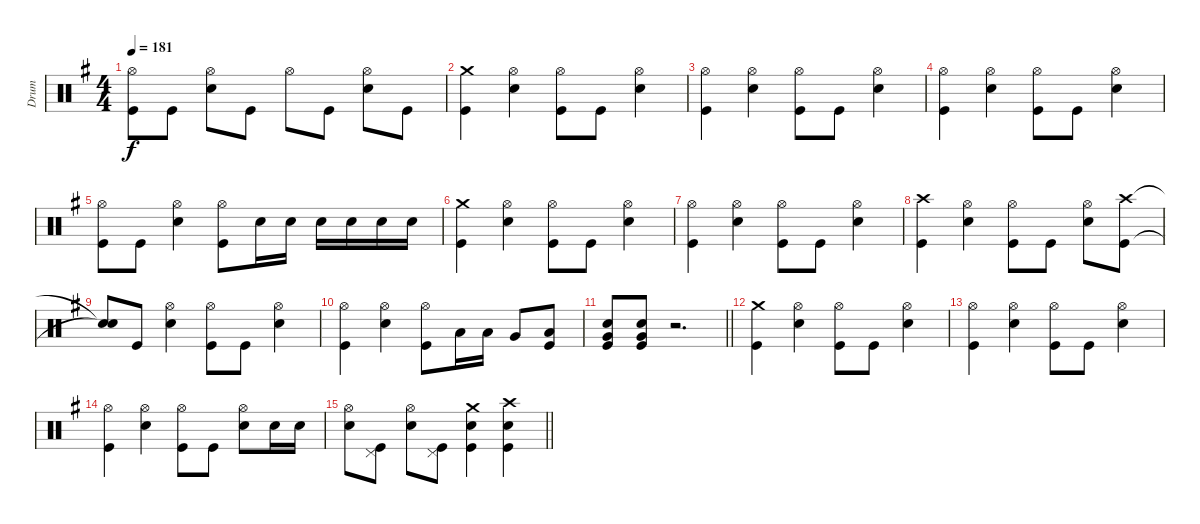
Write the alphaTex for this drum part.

\track ("Drum" "Drum") {instrument percussion}
\staff {score}
\articulation defaults
\ts (4 4)
\tempo 181
\clef neutral
\ks eminor
("Hi-Hat (open)" "Kick (hit)").8{dy f} "Kick (hit)".8 ("Hi-Hat (open)" "Snare (hit) 2").8 "Kick (hit)".8 "Hi-Hat (open)".8 "Kick (hit)".8 ("Hi-Hat (open)" "Snare (hit) 2").8 "Kick (hit)".8 |
("Crash medium (hit)" "Kick (hit)").4 ("Hi-Hat (open)" "Snare (hit) 2").4 ("Hi-Hat (open)" "Kick (hit)").8 "Kick (hit)".8 ("Hi-Hat (open)" "Snare (hit) 2").4 |
("Hi-Hat (open)" "Kick (hit)").4 ("Hi-Hat (open)" "Snare (hit) 2").4 ("Hi-Hat (open)" "Kick (hit)").8 "Kick (hit)".8 ("Hi-Hat (open)" "Snare (hit) 2").4 |
("Hi-Hat (open)" "Kick (hit)").4 ("Hi-Hat (open)" "Snare (hit) 2").4 ("Hi-Hat (open)" "Kick (hit)").8 "Kick (hit)".8 ("Hi-Hat (open)" "Snare (hit) 2").4 |
("Hi-Hat (open)" "Kick (hit)").8 "Kick (hit)".8 ("Hi-Hat (open)" "Snare (hit) 2").4 ("Hi-Hat (open)" "Kick (hit)").8 "Snare (hit) 2".16 "Snare (hit) 2".16 "Snare (hit) 2".16 "Snare (hit) 2".16 "Snare (hit) 2".16 "Snare (hit) 2".16 |
("Crash medium (hit)" "Kick (hit)").4 ("Hi-Hat (open)" "Snare (hit) 2").4 ("Hi-Hat (open)" "Kick (hit)").8 "Kick (hit)".8 ("Hi-Hat (open)" "Snare (hit) 2").4 |
("Hi-Hat (open)" "Kick (hit)").4 ("Hi-Hat (open)" "Snare (hit) 2").4 ("Hi-Hat (open)" "Kick (hit)").8 "Kick (hit)".8 ("Hi-Hat (open)" "Snare (hit) 2").4 |
("Crash high (hit)" "Kick (hit)").4 ("Hi-Hat (open)" "Snare (hit) 2").4 ("Hi-Hat (open)" "Kick (hit)").8 "Kick (hit)".8 ("Hi-Hat (open)" "Snare (hit) 2").8 ("Crash high (hit)" "Kick (hit)").8 |
("Snare (hit)"{t} "Snare (hit)"{t}).8 "Kick (hit)".8 ("Hi-Hat (open)" "Snare (hit) 2").4 ("Hi-Hat (open)" "Kick (hit)").8 "Kick (hit)".8 ("Hi-Hat (open)" "Snare (hit) 2").4 |
("Hi-Hat (open)" "Kick (hit)").4 ("Hi-Hat (open)" "Snare (hit) 2").4 ("Hi-Hat (open)" "Kick (hit)").8 "Low Tom (hit)".16 "Low Tom (hit)".16 "Very Low Tom (hit)".8 ("Low Floor Tom (hit)" "Kick (hit)").8 |
\barLineRight lightlight
("Very Low Tom (hit)" "Snare (hit) 2" "Kick (hit)").8 ("Very Low Tom (hit)" "Snare (hit) 2" "Kick (hit)").8 r.2{d} |
("Crash medium (hit)" "Kick (hit)").4 ("Hi-Hat (open)" "Snare (hit) 2").4 ("Hi-Hat (open)" "Kick (hit)").8 "Kick (hit)".8 ("Hi-Hat (open)" "Snare (hit) 2").4 |
("Hi-Hat (open)" "Kick (hit)").4 ("Hi-Hat (open)" "Snare (hit) 2").4 ("Hi-Hat (open)" "Kick (hit)").8 "Kick (hit)".8 ("Hi-Hat (open)" "Snare (hit) 2").4 |
("Hi-Hat (open)" "Kick (hit)").4 ("Hi-Hat (open)" "Snare (hit) 2").4 ("Hi-Hat (open)" "Kick (hit)").8 "Kick (hit)".8 ("Hi-Hat (open)" "Snare (hit) 2").8 "Snare (hit) 2".16 "Snare (hit) 2".16 |
\barLineRight lightlight
("Hi-Hat (open)" "Snare (hit) 2").8 ("Pedal Hi-Hat (hit)" "Kick (hit)").8 ("Hi-Hat (open)" "Snare (hit) 2").8 ("Pedal Hi-Hat (hit)" "Kick (hit)").8 ("Crash medium (hit)" "Snare (hit) 2" "Kick (hit)").4 ("Crash high (hit)" "Snare (hit) 2" "Kick (hit)").4
